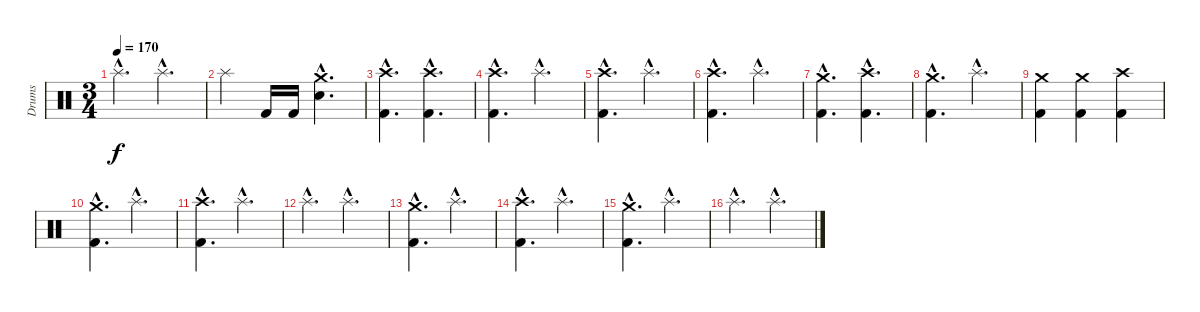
\track ("Drums" "Drums") {instrument percussion}
\staff {score}
\articulation defaults
\ts (3 4)
\tempo 170
\clef neutral
\ks c "Splash (hit)"{hac}.4{d dy f} "Splash (hit)"{hac}.4{d}
|
"Splash (hit)".4 "Kick (hit) 2".16 "Kick (hit) 2".16 ("Crash medium (hit)"{hac} "Electric Snare (hit)"{hac}).4{d} |
("Crash high (hit)"{hac} "Kick (hit) 2"{hac}).4{d} ("Crash high (hit)"{hac} "Kick (hit) 2"{hac}).4{d} |
("Crash high (hit)"{hac} "Kick (hit) 2"{hac}).4{d} "Splash (hit)"{hac}.4{d} |
("Crash high (hit)"{hac} "Kick (hit) 2"{hac}).4{d} "Splash (hit)"{hac}.4{d} |
("Crash high (hit)"{hac} "Kick (hit) 2"{hac}).4{d} "Splash (hit)"{hac}.4{d} |
("Crash medium (hit)"{hac} "Kick (hit) 2"{hac}).4{d} ("Crash high (hit)"{hac} "Kick (hit) 2"{hac}).4{d} |
("Crash medium (hit)"{hac} "Kick (hit) 2"{hac}).4{d} "Splash (hit)"{hac}.4{d} |
("Crash medium (hit)" "Kick (hit) 2").4 ("Crash medium (hit)" "Kick (hit) 2").4 ("Crash high (hit)" "Kick (hit) 2").4 |
("Crash medium (hit)"{hac} "Kick (hit) 2"{hac}).4{d} "Splash (hit)"{hac}.4{d} |
("Crash high (hit)"{hac} "Kick (hit) 2"{hac}).4{d} "Splash (hit)"{hac}.4{d} |
"Splash (hit)"{hac}.4{d} "Splash (hit)"{hac}.4{d} |
("Crash medium (hit)"{hac} "Kick (hit) 2"{hac}).4{d} "Splash (hit)"{hac}.4{d} |
("Crash high (hit)"{hac} "Kick (hit) 2"{hac}).4{d} "Splash (hit)"{hac}.4{d} |
("Crash medium (hit)"{hac} "Kick (hit) 2"{hac}).4{d} "Splash (hit)"{hac}.4{d} |
"Splash (hit)"{hac}.4{d} "Splash (hit)"{hac}.4{d}
